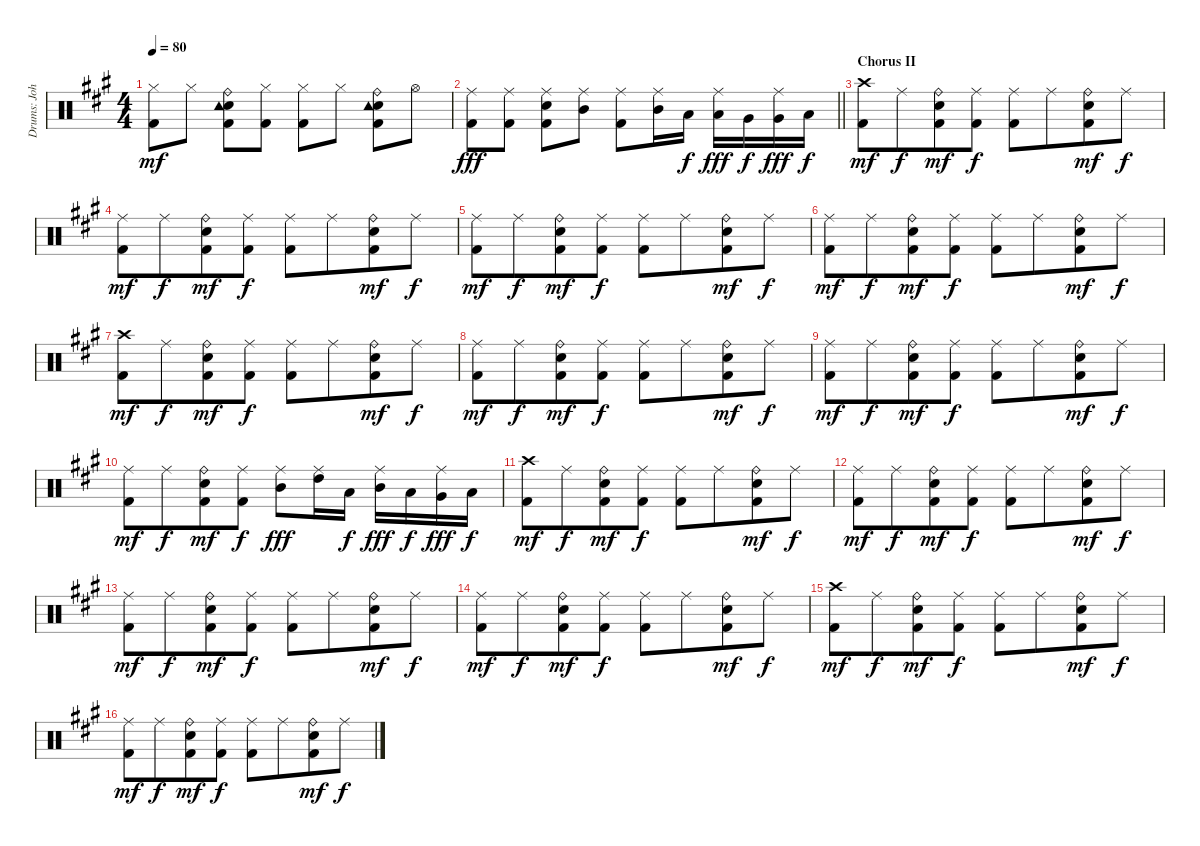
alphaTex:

\track ("Drums: John Wilcox" "Drums: Joh") {instrument percussion}
\staff {score}
\articulation defaults
\ts (4 4)
\tempo 80
\clef neutral
\ks a
("Hi-Hat (closed)" "Kick (hit) 2").8{dy mf} "Hi-Hat (closed)".8 ("Ride (bell)" "Snare (hit) 2" "Kick (hit) 2" "Tambourine (hit)").8 ("Hi-Hat (closed)" "Kick (hit) 2").8 ("Hi-Hat (closed)" "Kick (hit) 2").8 "Hi-Hat (closed)".8 ("Ride (bell)" "Snare (hit) 2" "Kick (hit) 2" "Tambourine (hit)").8 "Hi-Hat (open)".8 |
\barLineRight lightlight
("Ride (middle)" "Kick (hit) 2").8{dy fff} ("Ride (middle)" "Kick (hit) 2").8 ("Ride (middle)" "Snare (hit) 2" "Kick (hit) 2").8 ("Ride (middle)" "Mid Tom (hit)").8 ("Ride (middle)" "Kick (hit) 2").8 ("Ride (middle)" "Mid Tom (hit)").16 "Low Tom (hit)".16{dy f} ("Ride (middle)" "Low Tom (hit)").16{dy fff} "Very Low Tom (hit)".16{dy f} ("Ride (middle)" "Very Low Tom (hit)").16{dy fff} "Low Floor Tom (hit)".16{dy f} |
\section ("" "Chorus II")
("Crash high (hit)" "Kick (hit) 2").8{dy mf} "Ride (middle)".8{dy f beam merge} ("Ride (bell)" "Snare (hit) 2" "Kick (hit) 2").8{dy mf} ("Ride (middle)" "Kick (hit) 2").8{dy f} ("Ride (middle)" "Kick (hit) 2").8 "Ride (middle)".8{beam merge} ("Ride (bell)" "Snare (hit) 2" "Kick (hit) 2").8{dy mf} "Ride (middle)".8{dy f} |
("Ride (middle)" "Kick (hit) 2").8{dy mf} "Ride (middle)".8{dy f beam merge} ("Ride (bell)" "Snare (hit) 2" "Kick (hit) 2").8{dy mf} ("Ride (middle)" "Kick (hit) 2").8{dy f} ("Ride (middle)" "Kick (hit) 2").8 "Ride (middle)".8{beam merge} ("Ride (bell)" "Snare (hit) 2" "Kick (hit) 2").8{dy mf} "Ride (middle)".8{dy f} |
("Ride (middle)" "Kick (hit) 2").8{dy mf} "Ride (middle)".8{dy f beam merge} ("Ride (bell)" "Snare (hit) 2" "Kick (hit) 2").8{dy mf} ("Ride (middle)" "Kick (hit) 2").8{dy f} ("Ride (middle)" "Kick (hit) 2").8 "Ride (middle)".8{beam merge} ("Ride (bell)" "Snare (hit) 2" "Kick (hit) 2").8{dy mf} "Ride (middle)".8{dy f} |
("Ride (middle)" "Kick (hit) 2").8{dy mf} "Ride (middle)".8{dy f beam merge} ("Ride (bell)" "Snare (hit) 2" "Kick (hit) 2").8{dy mf} ("Ride (middle)" "Kick (hit) 2").8{dy f} ("Ride (middle)" "Kick (hit) 2").8 "Ride (middle)".8{beam merge} ("Ride (bell)" "Snare (hit) 2" "Kick (hit) 2").8{dy mf} "Ride (middle)".8{dy f} |
("Crash high (hit)" "Kick (hit) 2").8{dy mf} "Ride (middle)".8{dy f beam merge} ("Ride (bell)" "Snare (hit) 2" "Kick (hit) 2").8{dy mf} ("Ride (middle)" "Kick (hit) 2").8{dy f} ("Ride (middle)" "Kick (hit) 2").8 "Ride (middle)".8{beam merge} ("Ride (bell)" "Snare (hit) 2" "Kick (hit) 2").8{dy mf} "Ride (middle)".8{dy f} |
("Ride (middle)" "Kick (hit) 2").8{dy mf} "Ride (middle)".8{dy f beam merge} ("Ride (bell)" "Snare (hit) 2" "Kick (hit) 2").8{dy mf} ("Ride (middle)" "Kick (hit) 2").8{dy f} ("Ride (middle)" "Kick (hit) 2").8 "Ride (middle)".8{beam merge} ("Ride (bell)" "Snare (hit) 2" "Kick (hit) 2").8{dy mf} "Ride (middle)".8{dy f} |
("Ride (middle)" "Kick (hit) 2").8{dy mf} "Ride (middle)".8{dy f beam merge} ("Ride (bell)" "Snare (hit) 2" "Kick (hit) 2").8{dy mf} ("Ride (middle)" "Kick (hit) 2").8{dy f} ("Ride (middle)" "Kick (hit) 2").8 "Ride (middle)".8{beam merge} ("Ride (bell)" "Snare (hit) 2" "Kick (hit) 2").8{dy mf} "Ride (middle)".8{dy f} |
("Ride (middle)" "Kick (hit) 2").8{dy mf} "Ride (middle)".8{dy f beam merge} ("Ride (bell)" "Snare (hit) 2" "Kick (hit) 2").8{dy mf} ("Ride (middle)" "Kick (hit) 2").8{dy f} ("Ride (middle)" "Mid Tom (hit)").8{dy fff} ("Ride (middle)" "High Tom (hit)").16 "Low Tom (hit)".16{dy f} ("Ride (middle)" "Mid Tom (hit)").16{dy fff} "Low Tom (hit)".16{dy f} ("Ride (middle)" "Very Low Tom (hit)").16{dy fff} "Low Floor Tom (hit)".16{dy f} |
("Crash high (hit)" "Kick (hit) 2").8{dy mf} "Ride (middle)".8{dy f beam merge} ("Ride (bell)" "Snare (hit) 2" "Kick (hit) 2").8{dy mf} ("Ride (middle)" "Kick (hit) 2").8{dy f} ("Ride (middle)" "Kick (hit) 2").8 "Ride (middle)".8{beam merge} ("Ride (bell)" "Snare (hit) 2" "Kick (hit) 2").8{dy mf} "Ride (middle)".8{dy f} |
("Ride (middle)" "Kick (hit) 2").8{dy mf} "Ride (middle)".8{dy f beam merge} ("Ride (bell)" "Snare (hit) 2" "Kick (hit) 2").8{dy mf} ("Ride (middle)" "Kick (hit) 2").8{dy f} ("Ride (middle)" "Kick (hit) 2").8 "Ride (middle)".8{beam merge} ("Ride (bell)" "Snare (hit) 2" "Kick (hit) 2").8{dy mf} "Ride (middle)".8{dy f} |
("Ride (middle)" "Kick (hit) 2").8{dy mf} "Ride (middle)".8{dy f beam merge} ("Ride (bell)" "Snare (hit) 2" "Kick (hit) 2").8{dy mf} ("Ride (middle)" "Kick (hit) 2").8{dy f} ("Ride (middle)" "Kick (hit) 2").8 "Ride (middle)".8{beam merge} ("Ride (bell)" "Snare (hit) 2" "Kick (hit) 2").8{dy mf} "Ride (middle)".8{dy f} |
("Ride (middle)" "Kick (hit) 2").8{dy mf} "Ride (middle)".8{dy f beam merge} ("Ride (bell)" "Snare (hit) 2" "Kick (hit) 2").8{dy mf} ("Ride (middle)" "Kick (hit) 2").8{dy f} ("Ride (middle)" "Kick (hit) 2").8 "Ride (middle)".8{beam merge} ("Ride (bell)" "Snare (hit) 2" "Kick (hit) 2").8{dy mf} "Ride (middle)".8{dy f} |
("Crash high (hit)" "Kick (hit) 2").8{dy mf} "Ride (middle)".8{dy f beam merge} ("Ride (bell)" "Snare (hit) 2" "Kick (hit) 2").8{dy mf} ("Ride (middle)" "Kick (hit) 2").8{dy f} ("Ride (middle)" "Kick (hit) 2").8 "Ride (middle)".8{beam merge} ("Ride (bell)" "Snare (hit) 2" "Kick (hit) 2").8{dy mf} "Ride (middle)".8{dy f} |
("Ride (middle)" "Kick (hit) 2").8{dy mf} "Ride (middle)".8{dy f beam merge} ("Ride (bell)" "Snare (hit) 2" "Kick (hit) 2").8{dy mf} ("Ride (middle)" "Kick (hit) 2").8{dy f} ("Ride (middle)" "Kick (hit) 2").8 "Ride (middle)".8{beam merge} ("Ride (bell)" "Snare (hit) 2" "Kick (hit) 2").8{dy mf} "Ride (middle)".8{dy f}
